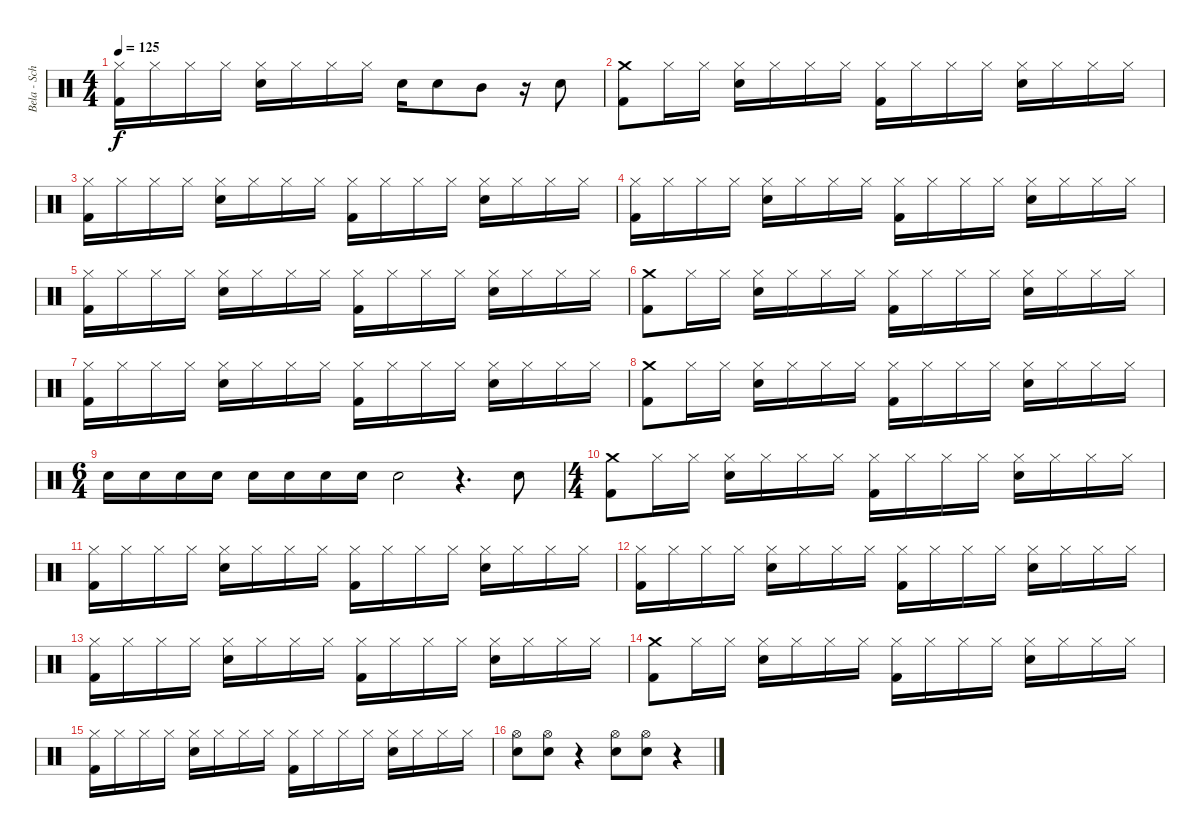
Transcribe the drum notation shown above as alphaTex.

\track ("Bela - Schlagzeug" "Bela - Sch") {instrument percussion}
\staff {score}
\articulation defaults
\ts (4 4)
\tempo 125
\clef neutral
\ks c
("Hi-Hat (closed)" "Kick (hit) 2").16{dy f} "Hi-Hat (closed)".16 "Hi-Hat (closed)".16 "Hi-Hat (closed)".16 ("Hi-Hat (closed)" "Electric Snare (hit)").16 "Hi-Hat (closed)".16 "Hi-Hat (closed)".16 "Hi-Hat (closed)".16 "Electric Snare (hit)".16 "Electric Snare (hit)".8 "Mid Tom (hit)".8 r.16 "Electric Snare (hit)".8 |
("Crash medium (hit)" "Kick (hit) 2").8 "Hi-Hat (closed)".16 "Hi-Hat (closed)".16 ("Hi-Hat (closed)" "Electric Snare (hit)").16 "Hi-Hat (closed)".16 "Hi-Hat (closed)".16 "Hi-Hat (closed)".16 ("Hi-Hat (closed)" "Kick (hit) 2").16 "Hi-Hat (closed)".16 "Hi-Hat (closed)".16 "Hi-Hat (closed)".16 ("Hi-Hat (closed)" "Electric Snare (hit)").16 "Hi-Hat (closed)".16 "Hi-Hat (closed)".16 "Hi-Hat (closed)".16 |
("Hi-Hat (closed)" "Kick (hit) 2").16 "Hi-Hat (closed)".16 "Hi-Hat (closed)".16 "Hi-Hat (closed)".16 ("Hi-Hat (closed)" "Electric Snare (hit)").16 "Hi-Hat (closed)".16 "Hi-Hat (closed)".16 "Hi-Hat (closed)".16 ("Hi-Hat (closed)" "Kick (hit) 2").16 "Hi-Hat (closed)".16 "Hi-Hat (closed)".16 "Hi-Hat (closed)".16 ("Hi-Hat (closed)" "Electric Snare (hit)").16 "Hi-Hat (closed)".16 "Hi-Hat (closed)".16 "Hi-Hat (closed)".16 |
("Hi-Hat (closed)" "Kick (hit) 2").16 "Hi-Hat (closed)".16 "Hi-Hat (closed)".16 "Hi-Hat (closed)".16 ("Hi-Hat (closed)" "Electric Snare (hit)").16 "Hi-Hat (closed)".16 "Hi-Hat (closed)".16 "Hi-Hat (closed)".16 ("Hi-Hat (closed)" "Kick (hit) 2").16 "Hi-Hat (closed)".16 "Hi-Hat (closed)".16 "Hi-Hat (closed)".16 ("Hi-Hat (closed)" "Electric Snare (hit)").16 "Hi-Hat (closed)".16 "Hi-Hat (closed)".16 "Hi-Hat (closed)".16 |
("Hi-Hat (closed)" "Kick (hit) 2").16 "Hi-Hat (closed)".16 "Hi-Hat (closed)".16 "Hi-Hat (closed)".16 ("Hi-Hat (closed)" "Electric Snare (hit)").16 "Hi-Hat (closed)".16 "Hi-Hat (closed)".16 "Hi-Hat (closed)".16 ("Hi-Hat (closed)" "Kick (hit) 2").16 "Hi-Hat (closed)".16 "Hi-Hat (closed)".16 "Hi-Hat (closed)".16 ("Hi-Hat (closed)" "Electric Snare (hit)").16 "Hi-Hat (closed)".16 "Hi-Hat (closed)".16 "Hi-Hat (closed)".16 |
("Crash medium (hit)" "Kick (hit) 2").8 "Hi-Hat (closed)".16 "Hi-Hat (closed)".16 ("Hi-Hat (closed)" "Electric Snare (hit)").16 "Hi-Hat (closed)".16 "Hi-Hat (closed)".16 "Hi-Hat (closed)".16 ("Hi-Hat (closed)" "Kick (hit) 2").16 "Hi-Hat (closed)".16 "Hi-Hat (closed)".16 "Hi-Hat (closed)".16 ("Hi-Hat (closed)" "Electric Snare (hit)").16 "Hi-Hat (closed)".16 "Hi-Hat (closed)".16 "Hi-Hat (closed)".16 |
("Hi-Hat (closed)" "Kick (hit) 2").16 "Hi-Hat (closed)".16 "Hi-Hat (closed)".16 "Hi-Hat (closed)".16 ("Hi-Hat (closed)" "Electric Snare (hit)").16 "Hi-Hat (closed)".16 "Hi-Hat (closed)".16 "Hi-Hat (closed)".16 ("Hi-Hat (closed)" "Kick (hit) 2").16 "Hi-Hat (closed)".16 "Hi-Hat (closed)".16 "Hi-Hat (closed)".16 ("Hi-Hat (closed)" "Electric Snare (hit)").16 "Hi-Hat (closed)".16 "Hi-Hat (closed)".16 "Hi-Hat (closed)".16 |
("Crash medium (hit)" "Kick (hit) 2").8 "Hi-Hat (closed)".16 "Hi-Hat (closed)".16 ("Hi-Hat (closed)" "Electric Snare (hit)").16 "Hi-Hat (closed)".16 "Hi-Hat (closed)".16 "Hi-Hat (closed)".16 ("Hi-Hat (closed)" "Kick (hit) 2").16 "Hi-Hat (closed)".16 "Hi-Hat (closed)".16 "Hi-Hat (closed)".16 ("Hi-Hat (closed)" "Electric Snare (hit)").16 "Hi-Hat (closed)".16 "Hi-Hat (closed)".16 "Hi-Hat (closed)".16 |
\ts (6 4)
"Electric Snare (hit)".16 "Electric Snare (hit)".16 "Electric Snare (hit)".16 "Electric Snare (hit)".16 "Electric Snare (hit)".16 "Electric Snare (hit)".16 "Electric Snare (hit)".16 "Electric Snare (hit)".16 "Electric Snare (hit)".2 r.4{d} "Electric Snare (hit)".8 |
\ts (4 4)
("Crash medium (hit)" "Kick (hit) 2").8 "Hi-Hat (closed)".16 "Hi-Hat (closed)".16 ("Hi-Hat (closed)" "Electric Snare (hit)").16 "Hi-Hat (closed)".16 "Hi-Hat (closed)".16 "Hi-Hat (closed)".16 ("Hi-Hat (closed)" "Kick (hit) 2").16 "Hi-Hat (closed)".16 "Hi-Hat (closed)".16 "Hi-Hat (closed)".16 ("Hi-Hat (closed)" "Electric Snare (hit)").16 "Hi-Hat (closed)".16 "Hi-Hat (closed)".16 "Hi-Hat (closed)".16 |
("Hi-Hat (closed)" "Kick (hit) 2").16 "Hi-Hat (closed)".16 "Hi-Hat (closed)".16 "Hi-Hat (closed)".16 ("Hi-Hat (closed)" "Electric Snare (hit)").16 "Hi-Hat (closed)".16 "Hi-Hat (closed)".16 "Hi-Hat (closed)".16 ("Hi-Hat (closed)" "Kick (hit) 2").16 "Hi-Hat (closed)".16 "Hi-Hat (closed)".16 "Hi-Hat (closed)".16 ("Hi-Hat (closed)" "Electric Snare (hit)").16 "Hi-Hat (closed)".16 "Hi-Hat (closed)".16 "Hi-Hat (closed)".16 |
("Hi-Hat (closed)" "Kick (hit) 2").16 "Hi-Hat (closed)".16 "Hi-Hat (closed)".16 "Hi-Hat (closed)".16 ("Hi-Hat (closed)" "Electric Snare (hit)").16 "Hi-Hat (closed)".16 "Hi-Hat (closed)".16 "Hi-Hat (closed)".16 ("Hi-Hat (closed)" "Kick (hit) 2").16 "Hi-Hat (closed)".16 "Hi-Hat (closed)".16 "Hi-Hat (closed)".16 ("Hi-Hat (closed)" "Electric Snare (hit)").16 "Hi-Hat (closed)".16 "Hi-Hat (closed)".16 "Hi-Hat (closed)".16 |
("Hi-Hat (closed)" "Kick (hit) 2").16 "Hi-Hat (closed)".16 "Hi-Hat (closed)".16 "Hi-Hat (closed)".16 ("Hi-Hat (closed)" "Electric Snare (hit)").16 "Hi-Hat (closed)".16 "Hi-Hat (closed)".16 "Hi-Hat (closed)".16 ("Hi-Hat (closed)" "Kick (hit) 2").16 "Hi-Hat (closed)".16 "Hi-Hat (closed)".16 "Hi-Hat (closed)".16 ("Hi-Hat (closed)" "Electric Snare (hit)").16 "Hi-Hat (closed)".16 "Hi-Hat (closed)".16 "Hi-Hat (closed)".16 |
("Crash medium (hit)" "Kick (hit) 2").8 "Hi-Hat (closed)".16 "Hi-Hat (closed)".16 ("Hi-Hat (closed)" "Electric Snare (hit)").16 "Hi-Hat (closed)".16 "Hi-Hat (closed)".16 "Hi-Hat (closed)".16 ("Hi-Hat (closed)" "Kick (hit) 2").16 "Hi-Hat (closed)".16 "Hi-Hat (closed)".16 "Hi-Hat (closed)".16 ("Hi-Hat (closed)" "Electric Snare (hit)").16 "Hi-Hat (closed)".16 "Hi-Hat (closed)".16 "Hi-Hat (closed)".16 |
("Hi-Hat (closed)" "Kick (hit) 2").16 "Hi-Hat (closed)".16 "Hi-Hat (closed)".16 "Hi-Hat (closed)".16 ("Hi-Hat (closed)" "Electric Snare (hit)").16 "Hi-Hat (closed)".16 "Hi-Hat (closed)".16 "Hi-Hat (closed)".16 ("Hi-Hat (closed)" "Kick (hit) 2").16 "Hi-Hat (closed)".16 "Hi-Hat (closed)".16 "Hi-Hat (closed)".16 ("Hi-Hat (closed)" "Electric Snare (hit)").16 "Hi-Hat (closed)".16 "Hi-Hat (closed)".16 "Hi-Hat (closed)".16 |
("Hi-Hat (open)" "Electric Snare (hit)").8 ("Hi-Hat (open)" "Electric Snare (hit)").8 r.4 ("Hi-Hat (open)" "Electric Snare (hit)").8 ("Hi-Hat (open)" "Electric Snare (hit)").8 r.4
